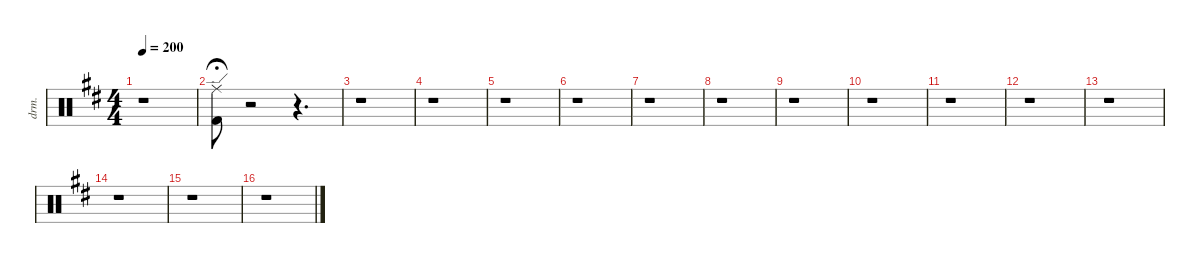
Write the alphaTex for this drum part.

\defaultSystemsLayout 4
\hideDynamics
\bracketExtendMode nobrackets
\otherSystemsTrackNameOrientation horizontal
\track ("Drums" "drm.") {instrument percussion}
\staff {score}
\articulation defaults
\ts (4 4)
\tempo 200
\clef neutral
\ks d
r.1{dy ff beam Down} |
("Kick (hit) 2"{acc forcenatural} "Ride (edge)"{acc #}).8{fermata (medium 0.5) beam Down} r.2{beam Down} r.4{d beam Down} |
r.1{beam Down} |
r.1{beam Down} |
r.1{beam Down} |
r.1{beam Down} |
r.1{beam Down} |
r.1{beam Down} |
r.1{beam Down} |
r.1{beam Down} |
r.1{beam Down} |
r.1{beam Down} |
r.1{beam Down} |
r.1{beam Down} |
r.1{beam Down} |
r.1{beam Down}
